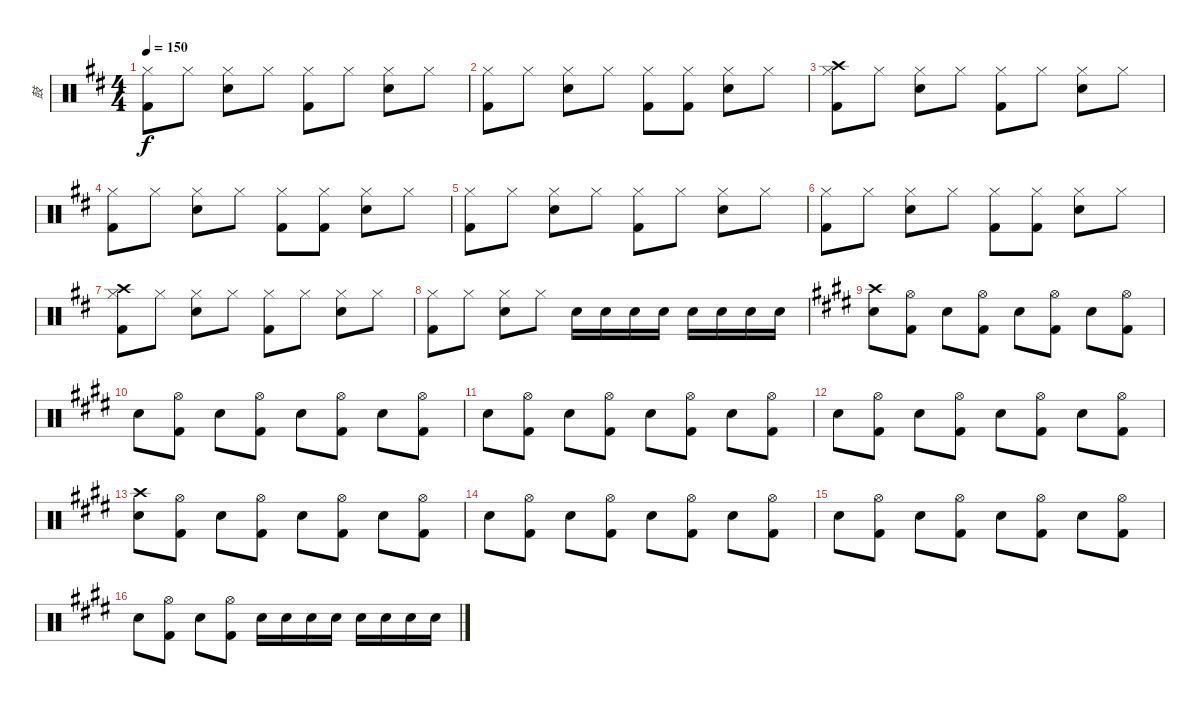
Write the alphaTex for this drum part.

\track ("鼓" "鼓") {instrument percussion}
\staff {score}
\articulation defaults
\ts (4 4)
\tempo 150
\clef neutral
\ks d
("Hi-Hat (closed)" "Kick (hit) 2").8{dy f} "Hi-Hat (closed)".8 ("Hi-Hat (closed)" "Snare (hit) 2").8 "Hi-Hat (closed)".8 ("Hi-Hat (closed)" "Kick (hit) 2").8 "Hi-Hat (closed)".8 ("Hi-Hat (closed)" "Snare (hit) 2").8 "Hi-Hat (closed)".8 |
("Hi-Hat (closed)" "Kick (hit) 2").8 "Hi-Hat (closed)".8 ("Hi-Hat (closed)" "Snare (hit) 2").8 "Hi-Hat (closed)".8 ("Hi-Hat (closed)" "Kick (hit) 2").8 ("Hi-Hat (closed)" "Kick (hit) 2").8 ("Hi-Hat (closed)" "Snare (hit) 2").8 "Hi-Hat (closed)".8 |
("Crash high (hit)" "Hi-Hat (closed)" "Kick (hit) 2").8 "Hi-Hat (closed)".8 ("Hi-Hat (closed)" "Snare (hit) 2").8 "Hi-Hat (closed)".8 ("Hi-Hat (closed)" "Kick (hit) 2").8 "Hi-Hat (closed)".8 ("Hi-Hat (closed)" "Snare (hit) 2").8 "Hi-Hat (closed)".8 |
("Hi-Hat (closed)" "Kick (hit) 2").8 "Hi-Hat (closed)".8 ("Hi-Hat (closed)" "Snare (hit) 2").8 "Hi-Hat (closed)".8 ("Hi-Hat (closed)" "Kick (hit) 2").8 ("Hi-Hat (closed)" "Kick (hit) 2").8 ("Hi-Hat (closed)" "Snare (hit) 2").8 "Hi-Hat (closed)".8 |
("Hi-Hat (closed)" "Kick (hit) 2").8 "Hi-Hat (closed)".8 ("Hi-Hat (closed)" "Snare (hit) 2").8 "Hi-Hat (closed)".8 ("Hi-Hat (closed)" "Kick (hit) 2").8 "Hi-Hat (closed)".8 ("Hi-Hat (closed)" "Snare (hit) 2").8 "Hi-Hat (closed)".8 |
("Hi-Hat (closed)" "Kick (hit) 2").8 "Hi-Hat (closed)".8 ("Hi-Hat (closed)" "Snare (hit) 2").8 "Hi-Hat (closed)".8 ("Hi-Hat (closed)" "Kick (hit) 2").8 ("Hi-Hat (closed)" "Kick (hit) 2").8 ("Hi-Hat (closed)" "Snare (hit) 2").8 "Hi-Hat (closed)".8 |
("Crash high (hit)" "Hi-Hat (closed)" "Kick (hit) 2").8 "Hi-Hat (closed)".8 ("Hi-Hat (closed)" "Snare (hit) 2").8 "Hi-Hat (closed)".8 ("Hi-Hat (closed)" "Kick (hit) 2").8 "Hi-Hat (closed)".8 ("Hi-Hat (closed)" "Snare (hit) 2").8 "Hi-Hat (closed)".8 |
("Hi-Hat (closed)" "Kick (hit) 2").8 "Hi-Hat (closed)".8 ("Hi-Hat (closed)" "Snare (hit) 2").8 "Hi-Hat (closed)".8 "Snare (hit) 2".16 "Snare (hit) 2".16 "Snare (hit) 2".16 "Snare (hit) 2".16 "Snare (hit) 2".16 "Snare (hit) 2".16 "Snare (hit) 2".16 "Snare (hit) 2".16 |
\ks e
("Crash high (hit)" "Snare (hit) 2").8 ("Hi-Hat (open)" "Kick (hit) 2").8 "Snare (hit) 2".8 ("Hi-Hat (open)" "Kick (hit) 2").8 "Snare (hit) 2".8 ("Hi-Hat (open)" "Kick (hit) 2").8 "Snare (hit) 2".8 ("Hi-Hat (open)" "Kick (hit) 2").8 |
"Snare (hit) 2".8 ("Hi-Hat (open)" "Kick (hit) 2").8 "Snare (hit) 2".8 ("Hi-Hat (open)" "Kick (hit) 2").8 "Snare (hit) 2".8 ("Hi-Hat (open)" "Kick (hit) 2").8 "Snare (hit) 2".8 ("Hi-Hat (open)" "Kick (hit) 2").8 |
"Snare (hit) 2".8 ("Hi-Hat (open)" "Kick (hit) 2").8 "Snare (hit) 2".8 ("Hi-Hat (open)" "Kick (hit) 2").8 "Snare (hit) 2".8 ("Hi-Hat (open)" "Kick (hit) 2").8 "Snare (hit) 2".8 ("Hi-Hat (open)" "Kick (hit) 2").8 |
"Snare (hit) 2".8 ("Hi-Hat (open)" "Kick (hit) 2").8 "Snare (hit) 2".8 ("Hi-Hat (open)" "Kick (hit) 2").8 "Snare (hit) 2".8 ("Hi-Hat (open)" "Kick (hit) 2").8 "Snare (hit) 2".8 ("Hi-Hat (open)" "Kick (hit) 2").8 |
("Crash high (hit)" "Snare (hit) 2").8 ("Hi-Hat (open)" "Kick (hit) 2").8 "Snare (hit) 2".8 ("Hi-Hat (open)" "Kick (hit) 2").8 "Snare (hit) 2".8 ("Hi-Hat (open)" "Kick (hit) 2").8 "Snare (hit) 2".8 ("Hi-Hat (open)" "Kick (hit) 2").8 |
"Snare (hit) 2".8 ("Hi-Hat (open)" "Kick (hit) 2").8 "Snare (hit) 2".8 ("Hi-Hat (open)" "Kick (hit) 2").8 "Snare (hit) 2".8 ("Hi-Hat (open)" "Kick (hit) 2").8 "Snare (hit) 2".8 ("Hi-Hat (open)" "Kick (hit) 2").8 |
"Snare (hit) 2".8 ("Hi-Hat (open)" "Kick (hit) 2").8 "Snare (hit) 2".8 ("Hi-Hat (open)" "Kick (hit) 2").8 "Snare (hit) 2".8 ("Hi-Hat (open)" "Kick (hit) 2").8 "Snare (hit) 2".8 ("Hi-Hat (open)" "Kick (hit) 2").8 |
"Snare (hit) 2".8 ("Hi-Hat (open)" "Kick (hit) 2").8 "Snare (hit) 2".8 ("Hi-Hat (open)" "Kick (hit) 2").8 "Snare (hit) 2".16 "Snare (hit) 2".16 "Snare (hit) 2".16 "Snare (hit) 2".16 "Snare (hit) 2".16 "Snare (hit) 2".16 "Snare (hit) 2".16 "Snare (hit) 2".16
